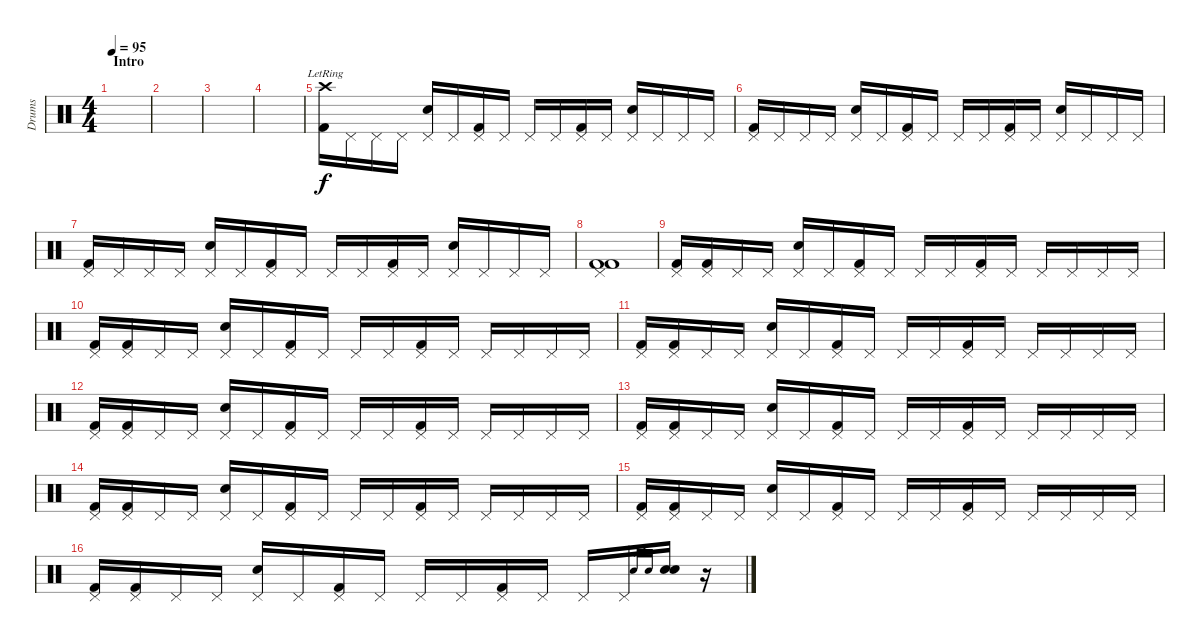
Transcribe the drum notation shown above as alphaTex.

\track ("Drums" "Drums") {instrument percussion}
\staff {score}
\articulation defaults
\ts (4 4)
\section ("" "Intro")
\tempo 95
\clef neutral
\ks c
|
|
|
|
("Crash high (hit)"{lr} "Kick (hit) 2").16 "Pedal Hi-Hat (hit)".16 "Pedal Hi-Hat (hit)".16 "Pedal Hi-Hat (hit)".16 ("Pedal Hi-Hat (hit)" "Electric Snare (hit)").16 "Pedal Hi-Hat (hit)".16 ("Pedal Hi-Hat (hit)" "Kick (hit) 2").16 "Pedal Hi-Hat (hit)".16 "Pedal Hi-Hat (hit)".16 "Pedal Hi-Hat (hit)".16 ("Pedal Hi-Hat (hit)" "Kick (hit) 2").16 "Pedal Hi-Hat (hit)".16 ("Pedal Hi-Hat (hit)" "Electric Snare (hit)").16 "Pedal Hi-Hat (hit)".16 "Pedal Hi-Hat (hit)".16 "Pedal Hi-Hat (hit)".16 |
("Pedal Hi-Hat (hit)" "Kick (hit) 2").16 "Pedal Hi-Hat (hit)".16 "Pedal Hi-Hat (hit)".16 "Pedal Hi-Hat (hit)".16 ("Pedal Hi-Hat (hit)" "Electric Snare (hit)").16 "Pedal Hi-Hat (hit)".16 ("Pedal Hi-Hat (hit)" "Kick (hit) 2").16 "Pedal Hi-Hat (hit)".16 "Pedal Hi-Hat (hit)".16 "Pedal Hi-Hat (hit)".16 ("Pedal Hi-Hat (hit)" "Kick (hit) 2").16 "Pedal Hi-Hat (hit)".16 ("Pedal Hi-Hat (hit)" "Electric Snare (hit)").16 "Pedal Hi-Hat (hit)".16 "Pedal Hi-Hat (hit)".16 "Pedal Hi-Hat (hit)".16 |
("Pedal Hi-Hat (hit)" "Kick (hit) 2").16 "Pedal Hi-Hat (hit)".16 "Pedal Hi-Hat (hit)".16 "Pedal Hi-Hat (hit)".16 ("Pedal Hi-Hat (hit)" "Electric Snare (hit)").16 "Pedal Hi-Hat (hit)".16 ("Pedal Hi-Hat (hit)" "Kick (hit) 2").16 "Pedal Hi-Hat (hit)".16 "Pedal Hi-Hat (hit)".16 "Pedal Hi-Hat (hit)".16 ("Pedal Hi-Hat (hit)" "Kick (hit) 2").16 "Pedal Hi-Hat (hit)".16 ("Pedal Hi-Hat (hit)" "Electric Snare (hit)").16 "Pedal Hi-Hat (hit)".16 "Pedal Hi-Hat (hit)".16 "Pedal Hi-Hat (hit)".16 |
("Pedal Hi-Hat (hit)" "Kick (hit) 2" "Kick (hit) 2").1 |
("Pedal Hi-Hat (hit)" "Kick (hit) 2").16 ("Pedal Hi-Hat (hit)" "Kick (hit) 2").16 "Pedal Hi-Hat (hit)".16 "Pedal Hi-Hat (hit)".16 ("Pedal Hi-Hat (hit)" "Electric Snare (hit)").16 "Pedal Hi-Hat (hit)".16 ("Pedal Hi-Hat (hit)" "Kick (hit) 2").16 "Pedal Hi-Hat (hit)".16 "Pedal Hi-Hat (hit)".16 "Pedal Hi-Hat (hit)".16 ("Pedal Hi-Hat (hit)" "Kick (hit) 2").16 "Pedal Hi-Hat (hit)".16 "Pedal Hi-Hat (hit)".16 "Pedal Hi-Hat (hit)".16 "Pedal Hi-Hat (hit)".16 "Pedal Hi-Hat (hit)".16 |
("Pedal Hi-Hat (hit)" "Kick (hit) 2").16 ("Pedal Hi-Hat (hit)" "Kick (hit) 2").16 "Pedal Hi-Hat (hit)".16 "Pedal Hi-Hat (hit)".16 ("Pedal Hi-Hat (hit)" "Electric Snare (hit)").16 "Pedal Hi-Hat (hit)".16 ("Pedal Hi-Hat (hit)" "Kick (hit) 2").16 "Pedal Hi-Hat (hit)".16 "Pedal Hi-Hat (hit)".16 "Pedal Hi-Hat (hit)".16 ("Pedal Hi-Hat (hit)" "Kick (hit) 2").16 "Pedal Hi-Hat (hit)".16 "Pedal Hi-Hat (hit)".16 "Pedal Hi-Hat (hit)".16 "Pedal Hi-Hat (hit)".16 "Pedal Hi-Hat (hit)".16 |
("Pedal Hi-Hat (hit)" "Kick (hit) 2").16 ("Pedal Hi-Hat (hit)" "Kick (hit) 2").16 "Pedal Hi-Hat (hit)".16 "Pedal Hi-Hat (hit)".16 ("Pedal Hi-Hat (hit)" "Electric Snare (hit)").16 "Pedal Hi-Hat (hit)".16 ("Pedal Hi-Hat (hit)" "Kick (hit) 2").16 "Pedal Hi-Hat (hit)".16 "Pedal Hi-Hat (hit)".16 "Pedal Hi-Hat (hit)".16 ("Pedal Hi-Hat (hit)" "Kick (hit) 2").16 "Pedal Hi-Hat (hit)".16 "Pedal Hi-Hat (hit)".16 "Pedal Hi-Hat (hit)".16 "Pedal Hi-Hat (hit)".16 "Pedal Hi-Hat (hit)".16 |
("Pedal Hi-Hat (hit)" "Kick (hit) 2").16 ("Pedal Hi-Hat (hit)" "Kick (hit) 2").16 "Pedal Hi-Hat (hit)".16 "Pedal Hi-Hat (hit)".16 ("Pedal Hi-Hat (hit)" "Electric Snare (hit)").16 "Pedal Hi-Hat (hit)".16 ("Pedal Hi-Hat (hit)" "Kick (hit) 2").16 "Pedal Hi-Hat (hit)".16 "Pedal Hi-Hat (hit)".16 "Pedal Hi-Hat (hit)".16 ("Pedal Hi-Hat (hit)" "Kick (hit) 2").16 "Pedal Hi-Hat (hit)".16 "Pedal Hi-Hat (hit)".16 "Pedal Hi-Hat (hit)".16 "Pedal Hi-Hat (hit)".16 "Pedal Hi-Hat (hit)".16 |
("Pedal Hi-Hat (hit)" "Kick (hit) 2").16 ("Pedal Hi-Hat (hit)" "Kick (hit) 2").16 "Pedal Hi-Hat (hit)".16 "Pedal Hi-Hat (hit)".16 ("Pedal Hi-Hat (hit)" "Electric Snare (hit)").16 "Pedal Hi-Hat (hit)".16 ("Pedal Hi-Hat (hit)" "Kick (hit) 2").16 "Pedal Hi-Hat (hit)".16 "Pedal Hi-Hat (hit)".16 "Pedal Hi-Hat (hit)".16 ("Pedal Hi-Hat (hit)" "Kick (hit) 2").16 "Pedal Hi-Hat (hit)".16 "Pedal Hi-Hat (hit)".16 "Pedal Hi-Hat (hit)".16 "Pedal Hi-Hat (hit)".16 "Pedal Hi-Hat (hit)".16 |
("Pedal Hi-Hat (hit)" "Kick (hit) 2").16 ("Pedal Hi-Hat (hit)" "Kick (hit) 2").16 "Pedal Hi-Hat (hit)".16 "Pedal Hi-Hat (hit)".16 ("Pedal Hi-Hat (hit)" "Electric Snare (hit)").16 "Pedal Hi-Hat (hit)".16 ("Pedal Hi-Hat (hit)" "Kick (hit) 2").16 "Pedal Hi-Hat (hit)".16 "Pedal Hi-Hat (hit)".16 "Pedal Hi-Hat (hit)".16 ("Pedal Hi-Hat (hit)" "Kick (hit) 2").16 "Pedal Hi-Hat (hit)".16 "Pedal Hi-Hat (hit)".16 "Pedal Hi-Hat (hit)".16 "Pedal Hi-Hat (hit)".16 "Pedal Hi-Hat (hit)".16 |
("Pedal Hi-Hat (hit)" "Kick (hit) 2").16 ("Pedal Hi-Hat (hit)" "Kick (hit) 2").16 "Pedal Hi-Hat (hit)".16 "Pedal Hi-Hat (hit)".16 ("Pedal Hi-Hat (hit)" "Electric Snare (hit)").16 "Pedal Hi-Hat (hit)".16 ("Pedal Hi-Hat (hit)" "Kick (hit) 2").16 "Pedal Hi-Hat (hit)".16 "Pedal Hi-Hat (hit)".16 "Pedal Hi-Hat (hit)".16 ("Pedal Hi-Hat (hit)" "Kick (hit) 2").16 "Pedal Hi-Hat (hit)".16 "Pedal Hi-Hat (hit)".16 "Pedal Hi-Hat (hit)".16 "Pedal Hi-Hat (hit)".16 "Pedal Hi-Hat (hit)".16 |
("Pedal Hi-Hat (hit)" "Kick (hit) 2").16 ("Pedal Hi-Hat (hit)" "Kick (hit) 2").16 "Pedal Hi-Hat (hit)".16 "Pedal Hi-Hat (hit)".16 ("Pedal Hi-Hat (hit)" "Electric Snare (hit)").16 "Pedal Hi-Hat (hit)".16 ("Pedal Hi-Hat (hit)" "Kick (hit) 2").16 "Pedal Hi-Hat (hit)".16 "Pedal Hi-Hat (hit)".16 "Pedal Hi-Hat (hit)".16 ("Pedal Hi-Hat (hit)" "Kick (hit) 2").16 "Pedal Hi-Hat (hit)".16 "Pedal Hi-Hat (hit)".16 "Pedal Hi-Hat (hit)".16 "Electric Snare (hit)".16{gr} "Electric Snare (hit)".16{gr} ("Electric Snare (hit)" "Electric Snare (hit)").16 r.16
